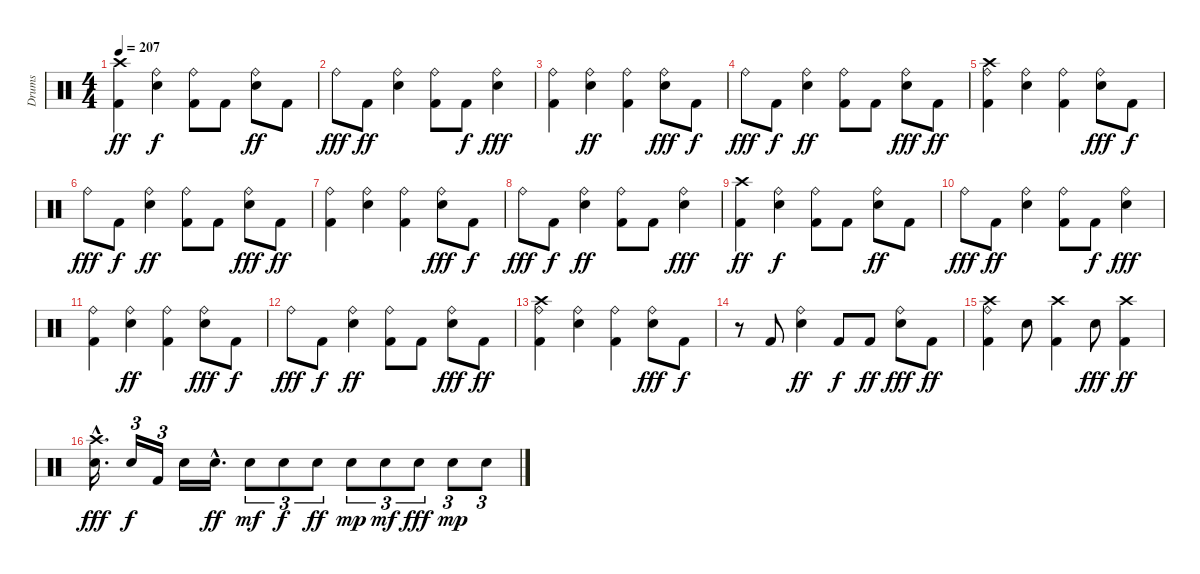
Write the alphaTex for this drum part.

\track ("Drums" "Drums") {instrument percussion}
\staff {score}
\articulation defaults
\ts (4 4)
\tempo 207
\clef neutral
\ks c
("Crash high (hit)" "Kick (hit) 2").4{dy ff} ("Ride (bell)" "Snare (hit) 2").4{dy f} ("Kick (hit) 2" "Ride (bell)").8 "Kick (hit) 2".8 ("Snare (hit) 2" "Ride (bell)").8{dy ff} "Kick (hit) 2".8 |
"Ride (bell)".8{dy fff} "Kick (hit) 2".8{dy ff} ("Snare (hit) 2" "Ride (bell)").4 ("Kick (hit) 2" "Ride (bell)").8 "Kick (hit) 2".8{dy f} ("Snare (hit) 2" "Ride (bell)").4{dy fff} |
("Kick (hit) 2" "Ride (bell)").4 ("Snare (hit) 2" "Ride (bell)").4{dy ff} ("Kick (hit) 2" "Ride (bell)").4 ("Snare (hit) 2" "Ride (bell)").8{dy fff} "Kick (hit) 2".8{dy f} |
"Ride (bell)".8{dy fff} "Kick (hit) 2".8{dy f} ("Snare (hit) 2" "Ride (bell)").4{dy ff} ("Kick (hit) 2" "Ride (bell)").8 "Kick (hit) 2".8 ("Snare (hit) 2" "Ride (bell)").8{dy fff} "Kick (hit) 2".8{dy ff} |
("Crash high (hit)" "Ride (bell)" "Kick (hit) 2").4 ("Snare (hit) 2" "Ride (bell)").4 ("Kick (hit) 2" "Ride (bell)").4 ("Snare (hit) 2" "Ride (bell)").8{dy fff} "Kick (hit) 2".8{dy f} |
"Ride (bell)".8{dy fff} "Kick (hit) 2".8{dy f} ("Snare (hit) 2" "Ride (bell)").4{dy ff} ("Kick (hit) 2" "Ride (bell)").8 "Kick (hit) 2".8 ("Snare (hit) 2" "Ride (bell)").8{dy fff} "Kick (hit) 2".8{dy ff} |
("Ride (bell)" "Kick (hit) 2").4 ("Snare (hit) 2" "Ride (bell)").4 ("Kick (hit) 2" "Ride (bell)").4 ("Snare (hit) 2" "Ride (bell)").8{dy fff} "Kick (hit) 2".8{dy f} |
"Ride (bell)".8{dy fff} "Kick (hit) 2".8{dy f} ("Snare (hit) 2" "Ride (bell)").4{dy ff} ("Kick (hit) 2" "Ride (bell)").8 "Kick (hit) 2".8 ("Snare (hit) 2" "Ride (bell)").4{dy fff} |
("Crash high (hit)" "Kick (hit) 2").4{dy ff} ("Snare (hit) 2" "Ride (bell)").4{dy f} ("Kick (hit) 2" "Ride (bell)").8 "Kick (hit) 2".8 ("Snare (hit) 2" "Ride (bell)").8{dy ff} "Kick (hit) 2".8 |
"Ride (bell)".8{dy fff} "Kick (hit) 2".8{dy ff} ("Snare (hit) 2" "Ride (bell)").4 ("Kick (hit) 2" "Ride (bell)").8 "Kick (hit) 2".8{dy f} ("Snare (hit) 2" "Ride (bell)").4{dy fff} |
("Kick (hit) 2" "Ride (bell)").4 ("Snare (hit) 2" "Ride (bell)").4{dy ff} ("Kick (hit) 2" "Ride (bell)").4 ("Snare (hit) 2" "Ride (bell)").8{dy fff} "Kick (hit) 2".8{dy f} |
"Ride (bell)".8{dy fff} "Kick (hit) 2".8{dy f} ("Snare (hit) 2" "Ride (bell)").4{dy ff} ("Kick (hit) 2" "Ride (bell)").8 "Kick (hit) 2".8 ("Snare (hit) 2" "Ride (bell)").8{dy fff} "Kick (hit) 2".8{dy ff} |
("Crash high (hit)" "Ride (bell)" "Kick (hit) 2").4 ("Snare (hit) 2" "Ride (bell)").4 ("Kick (hit) 2" "Ride (bell)").4 ("Snare (hit) 2" "Ride (bell)").8{dy fff} "Kick (hit) 2".8{dy f} |
r.8 "Kick (hit) 2".8 ("Snare (hit) 2" "Ride (bell)").4{dy ff} "Kick (hit) 2".8{dy f} "Kick (hit) 2".8{dy ff} ("Snare (hit) 2" "Ride (bell)").8{dy fff} "Kick (hit) 2".8{dy ff} |
("Crash high (hit)" "Ride (bell)" "Kick (hit) 2").4 "Snare (hit) 2".8 ("Crash high (hit)" "Kick (hit) 2").4 "Snare (hit) 2".8{dy fff} ("Crash high (hit)" "Kick (hit) 2").4{dy ff} |
("Snare (hit) 2"{hac} "Crash high (hit)").16{d dy fff} "Snare (hit) 2".16{tu (3 2) dy f} "Kick (hit) 2".16{tu (3 2)} "Snare (hit) 2".16 "Snare (hit) 2"{hac}.16{d dy ff} "Snare (hit) 2".8{tu (3 2) dy mf} "Snare (hit) 2".8{tu (3 2) dy f} "Snare (hit) 2".8{tu (3 2) dy ff} "Snare (hit) 2".8{tu (3 2) dy mp} "Snare (hit) 2".8{tu (3 2) dy mf} "Snare (hit) 2".8{tu (3 2) dy fff} "Snare (hit) 2".8{tu (3 2) dy mp} "Snare (hit) 2".8{tu (3 2)}
